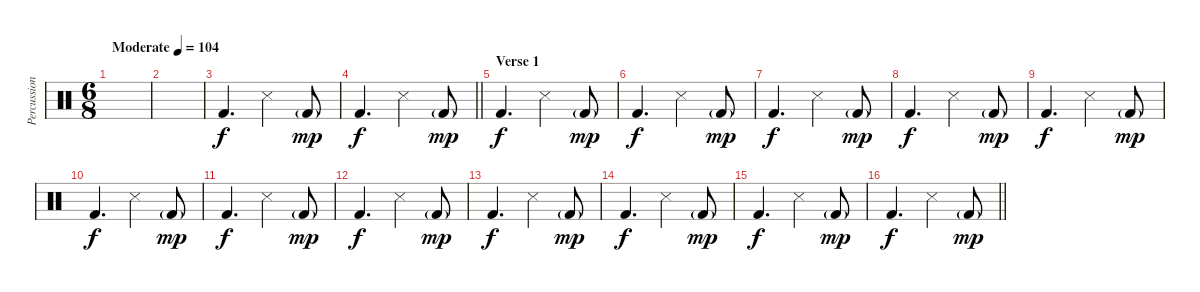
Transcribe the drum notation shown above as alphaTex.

\track ("Percussion" "Percussion") {instrument percussion}
\staff {score}
\articulation defaults
\ts (6 8)
\tempo (104 "Moderate")
\clef neutral
\ks c
|
|
"Kick (hit) 2".4{d} "Snare (side stick) 3".4 "Kick (hit) 2"{g}.8{dy mp} |
\barLineRight lightlight "Kick (hit) 2".4{d dy f} "Snare (side stick) 3".4 "Kick (hit) 2"{g}.8{dy mp}
|
\section ("" "Verse 1")
"Kick (hit) 2".4{d dy f} "Snare (side stick) 3".4 "Kick (hit) 2"{g}.8{dy mp} |
"Kick (hit) 2".4{d dy f} "Snare (side stick) 3".4 "Kick (hit) 2"{g}.8{dy mp} |
"Kick (hit) 2".4{d dy f} "Snare (side stick) 3".4 "Kick (hit) 2"{g}.8{dy mp} |
"Kick (hit) 2".4{d dy f} "Snare (side stick) 3".4 "Kick (hit) 2"{g}.8{dy mp} |
"Kick (hit) 2".4{d dy f} "Snare (side stick) 3".4 "Kick (hit) 2"{g}.8{dy mp} |
"Kick (hit) 2".4{d dy f} "Snare (side stick) 3".4 "Kick (hit) 2"{g}.8{dy mp} |
"Kick (hit) 2".4{d dy f} "Snare (side stick) 3".4 "Kick (hit) 2"{g}.8{dy mp} |
"Kick (hit) 2".4{d dy f} "Snare (side stick) 3".4 "Kick (hit) 2"{g}.8{dy mp} |
"Kick (hit) 2".4{d dy f} "Snare (side stick) 3".4 "Kick (hit) 2"{g}.8{dy mp} |
"Kick (hit) 2".4{d dy f} "Snare (side stick) 3".4 "Kick (hit) 2"{g}.8{dy mp} |
"Kick (hit) 2".4{d dy f} "Snare (side stick) 3".4 "Kick (hit) 2"{g}.8{dy mp} |
\barLineRight lightlight "Kick (hit) 2".4{d dy f} "Snare (side stick) 3".4 "Kick (hit) 2"{g}.8{dy mp}
